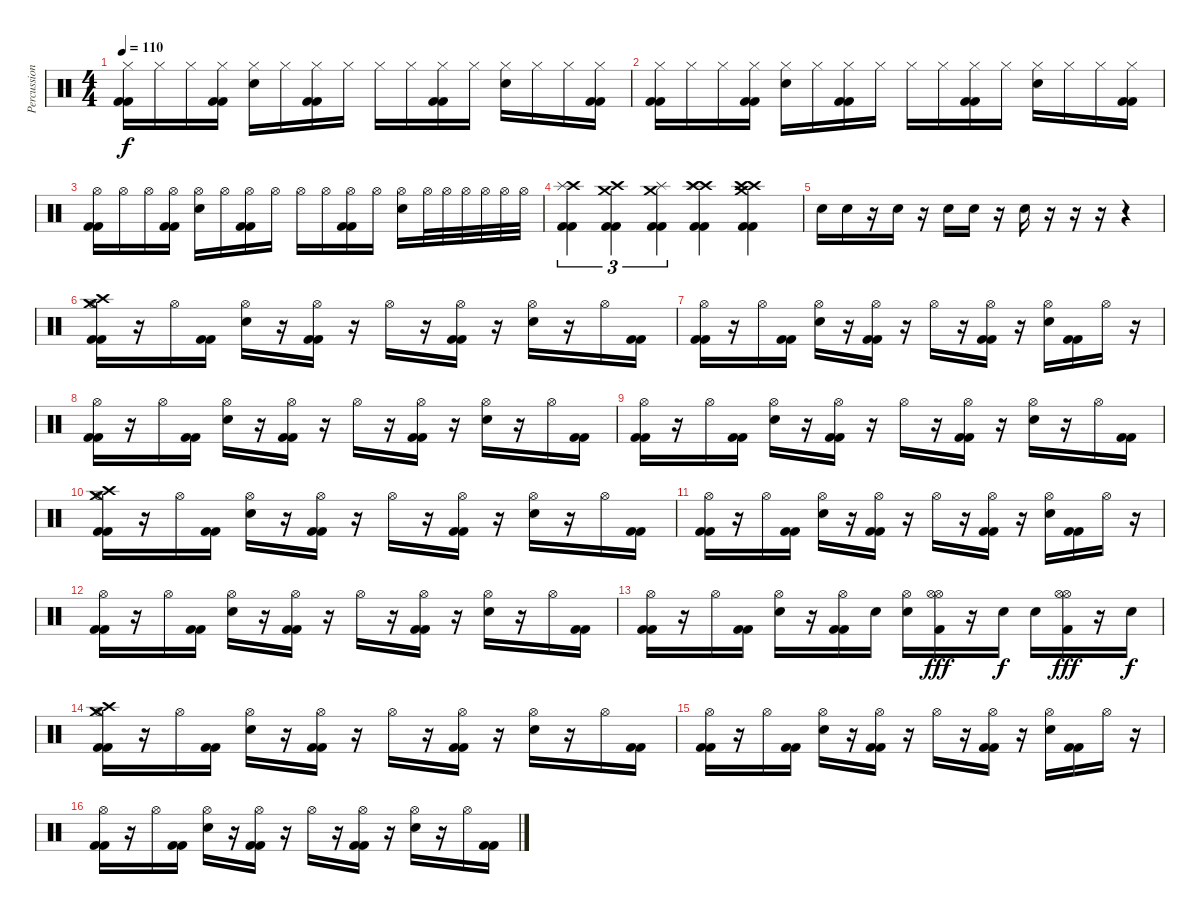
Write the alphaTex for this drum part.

\track ("Percussion" "Percussion") {instrument percussion}
\staff {score}
\articulation defaults
\ts (4 4)
\tempo 110
\clef neutral
\ks c
("Hi-Hat (closed)" "Kick (hit) 2" "Kick (hit) 2").16{dy f} "Hi-Hat (closed)".16 "Hi-Hat (closed)".16 ("Hi-Hat (closed)" "Kick (hit) 2" "Kick (hit) 2").16 ("Hi-Hat (closed)" "Electric Snare (hit)").16 "Hi-Hat (closed)".16 ("Hi-Hat (closed)" "Kick (hit) 2" "Kick (hit) 2").16 "Hi-Hat (closed)".16 "Hi-Hat (closed)".16 "Hi-Hat (closed)".16 ("Hi-Hat (closed)" "Kick (hit) 2" "Kick (hit) 2").16 "Hi-Hat (closed)".16 ("Hi-Hat (closed)" "Electric Snare (hit)").16 "Hi-Hat (closed)".16 "Hi-Hat (closed)".16 ("Hi-Hat (closed)" "Kick (hit) 2" "Kick (hit) 2").16 |
("Hi-Hat (closed)" "Kick (hit) 2" "Kick (hit) 2").16 "Hi-Hat (closed)".16 "Hi-Hat (closed)".16 ("Hi-Hat (closed)" "Kick (hit) 2" "Kick (hit) 2").16 ("Hi-Hat (closed)" "Electric Snare (hit)").16 "Hi-Hat (closed)".16 ("Hi-Hat (closed)" "Kick (hit) 2" "Kick (hit) 2").16 "Hi-Hat (closed)".16 "Hi-Hat (closed)".16 "Hi-Hat (closed)".16 ("Hi-Hat (closed)" "Kick (hit) 2" "Kick (hit) 2").16 "Hi-Hat (closed)".16 ("Hi-Hat (closed)" "Electric Snare (hit)").16 "Hi-Hat (closed)".16 "Hi-Hat (closed)".16 ("Hi-Hat (closed)" "Kick (hit) 2" "Kick (hit) 2").16 |
("Hi-Hat (open)" "Kick (hit) 2" "Kick (hit) 2").16 "Hi-Hat (open)".16 "Hi-Hat (open)".16 ("Hi-Hat (open)" "Kick (hit) 2" "Kick (hit) 2").16 ("Hi-Hat (open)" "Electric Snare (hit)").16 "Hi-Hat (open)".16 ("Hi-Hat (open)" "Kick (hit) 2" "Kick (hit) 2").16 "Hi-Hat (open)".16 "Hi-Hat (open)".16 "Hi-Hat (open)".16 ("Hi-Hat (open)" "Kick (hit) 2" "Kick (hit) 2").16 "Hi-Hat (open)".16 ("Hi-Hat (open)" "Electric Snare (hit)").16 "Hi-Hat (open)".32 "Hi-Hat (open)".32 "Hi-Hat (open)".32 "Hi-Hat (open)".32 "Hi-Hat (open)".32 "Hi-Hat (open)".32 |
("Crash high (hit)" "Splash (hit)" "Kick (hit) 2" "Kick (hit) 2").4{tu (3 2)} ("Crash medium (hit)" "Crash high (hit)" "Kick (hit) 2" "Kick (hit) 2").4{tu (3 2)} ("Splash (hit)" "Crash medium (hit)" "Kick (hit) 2" "Kick (hit) 2").4{tu (3 2)} ("Crash high (hit)" "Crash high (hit)" "Splash (hit)" "Kick (hit) 2" "Kick (hit) 2").4 ("Crash high (hit)" "Crash high (hit)" "Crash medium (hit)" "Kick (hit) 2" "Kick (hit) 2").4 |
"Electric Snare (hit)".16 "Electric Snare (hit)".16 r.16 "Electric Snare (hit)".16 r.16 "Electric Snare (hit)".16 "Electric Snare (hit)".16 r.16 "Electric Snare (hit)".16 r.16 r.16 r.16 r.4 |
("Hi-Hat (open)" "Crash high (hit)" "Crash medium (hit)" "Kick (hit) 2" "Kick (hit) 2").16 r.16 "Hi-Hat (open)".16 ("Kick (hit) 2" "Kick (hit) 2").16 ("Hi-Hat (open)" "Electric Snare (hit)").16 r.16 ("Hi-Hat (open)" "Kick (hit) 2" "Kick (hit) 2").16 r.16 "Hi-Hat (open)".16 r.16 ("Hi-Hat (open)" "Kick (hit) 2" "Kick (hit) 2").16 r.16 ("Hi-Hat (open)" "Electric Snare (hit)").16 r.16 "Hi-Hat (open)".16 ("Kick (hit) 2" "Kick (hit) 2").16 |
("Hi-Hat (open)" "Kick (hit) 2" "Kick (hit) 2").16 r.16 "Hi-Hat (open)".16 ("Kick (hit) 2" "Kick (hit) 2").16 ("Hi-Hat (open)" "Electric Snare (hit)").16 r.16 ("Hi-Hat (open)" "Kick (hit) 2" "Kick (hit) 2").16 r.16 "Hi-Hat (open)".16 r.16 ("Hi-Hat (open)" "Kick (hit) 2" "Kick (hit) 2").16 r.16 ("Hi-Hat (open)" "Electric Snare (hit)").16 ("Kick (hit) 2" "Kick (hit) 2").16 "Hi-Hat (open)".16 r.16 |
("Hi-Hat (open)" "Kick (hit) 2" "Kick (hit) 2").16 r.16 "Hi-Hat (open)".16 ("Kick (hit) 2" "Kick (hit) 2").16 ("Hi-Hat (open)" "Electric Snare (hit)").16 r.16 ("Hi-Hat (open)" "Kick (hit) 2" "Kick (hit) 2").16 r.16 "Hi-Hat (open)".16 r.16 ("Hi-Hat (open)" "Kick (hit) 2" "Kick (hit) 2").16 r.16 ("Hi-Hat (open)" "Electric Snare (hit)").16 r.16 "Hi-Hat (open)".16 ("Kick (hit) 2" "Kick (hit) 2").16 |
("Hi-Hat (open)" "Kick (hit) 2" "Kick (hit) 2").16 r.16 "Hi-Hat (open)".16 ("Kick (hit) 2" "Kick (hit) 2").16 ("Hi-Hat (open)" "Electric Snare (hit)").16 r.16 ("Hi-Hat (open)" "Kick (hit) 2" "Kick (hit) 2").16 r.16 "Hi-Hat (open)".16 r.16 ("Hi-Hat (open)" "Kick (hit) 2" "Kick (hit) 2").16 r.16 ("Hi-Hat (open)" "Electric Snare (hit)").16 r.16 "Hi-Hat (open)".16 ("Kick (hit) 2" "Kick (hit) 2").16 |
("Hi-Hat (open)" "Crash high (hit)" "Crash medium (hit)" "Kick (hit) 2" "Kick (hit) 2").16 r.16 "Hi-Hat (open)".16 ("Kick (hit) 2" "Kick (hit) 2").16 ("Hi-Hat (open)" "Electric Snare (hit)").16 r.16 ("Hi-Hat (open)" "Kick (hit) 2" "Kick (hit) 2").16 r.16 "Hi-Hat (open)".16 r.16 ("Hi-Hat (open)" "Kick (hit) 2" "Kick (hit) 2").16 r.16 ("Hi-Hat (open)" "Electric Snare (hit)").16 r.16 "Hi-Hat (open)".16 ("Kick (hit) 2" "Kick (hit) 2").16 |
("Hi-Hat (open)" "Kick (hit) 2" "Kick (hit) 2").16 r.16 "Hi-Hat (open)".16 ("Kick (hit) 2" "Kick (hit) 2").16 ("Hi-Hat (open)" "Electric Snare (hit)").16 r.16 ("Hi-Hat (open)" "Kick (hit) 2" "Kick (hit) 2").16 r.16 "Hi-Hat (open)".16 r.16 ("Hi-Hat (open)" "Kick (hit) 2" "Kick (hit) 2").16 r.16 ("Hi-Hat (open)" "Electric Snare (hit)").16 ("Kick (hit) 2" "Kick (hit) 2").16 "Hi-Hat (open)".16 r.16 |
("Hi-Hat (open)" "Kick (hit) 2" "Kick (hit) 2").16 r.16 "Hi-Hat (open)".16 ("Kick (hit) 2" "Kick (hit) 2").16 ("Hi-Hat (open)" "Electric Snare (hit)").16 r.16 ("Hi-Hat (open)" "Kick (hit) 2" "Kick (hit) 2").16 r.16 "Hi-Hat (open)".16 r.16 ("Hi-Hat (open)" "Kick (hit) 2" "Kick (hit) 2").16 r.16 ("Hi-Hat (open)" "Electric Snare (hit)").16 r.16 "Hi-Hat (open)".16 ("Kick (hit) 2" "Kick (hit) 2").16 |
("Hi-Hat (open)" "Kick (hit) 2" "Kick (hit) 2").16 r.16 "Hi-Hat (open)".16 ("Kick (hit) 2" "Kick (hit) 2").16 ("Hi-Hat (open)" "Electric Snare (hit)").16 r.16 ("Hi-Hat (open)" "Kick (hit) 2" "Kick (hit) 2").16 "Electric Snare (hit)".16 ("Hi-Hat (open)" "Electric Snare (hit)").16 ("Hi-Hat (open)" "Hi-Hat (open)" "Kick (hit) 2").16{dy fff} r.16 "Electric Snare (hit)".16{dy f} "Electric Snare (hit)".16 ("Hi-Hat (open)" "Hi-Hat (open)" "Kick (hit) 2").16{dy fff} r.16 "Electric Snare (hit)".16{dy f} |
("Hi-Hat (open)" "Crash high (hit)" "Crash medium (hit)" "Kick (hit) 2" "Kick (hit) 2").16 r.16 "Hi-Hat (open)".16 ("Kick (hit) 2" "Kick (hit) 2").16 ("Hi-Hat (open)" "Electric Snare (hit)").16 r.16 ("Hi-Hat (open)" "Kick (hit) 2" "Kick (hit) 2").16 r.16 "Hi-Hat (open)".16 r.16 ("Hi-Hat (open)" "Kick (hit) 2" "Kick (hit) 2").16 r.16 ("Hi-Hat (open)" "Electric Snare (hit)").16 r.16 "Hi-Hat (open)".16 ("Kick (hit) 2" "Kick (hit) 2").16 |
("Hi-Hat (open)" "Kick (hit) 2" "Kick (hit) 2").16 r.16 "Hi-Hat (open)".16 ("Kick (hit) 2" "Kick (hit) 2").16 ("Hi-Hat (open)" "Electric Snare (hit)").16 r.16 ("Hi-Hat (open)" "Kick (hit) 2" "Kick (hit) 2").16 r.16 "Hi-Hat (open)".16 r.16 ("Hi-Hat (open)" "Kick (hit) 2" "Kick (hit) 2").16 r.16 ("Hi-Hat (open)" "Electric Snare (hit)").16 ("Kick (hit) 2" "Kick (hit) 2").16 "Hi-Hat (open)".16 r.16 |
("Hi-Hat (open)" "Kick (hit) 2" "Kick (hit) 2").16 r.16 "Hi-Hat (open)".16 ("Kick (hit) 2" "Kick (hit) 2").16 ("Hi-Hat (open)" "Electric Snare (hit)").16 r.16 ("Hi-Hat (open)" "Kick (hit) 2" "Kick (hit) 2").16 r.16 "Hi-Hat (open)".16 r.16 ("Hi-Hat (open)" "Kick (hit) 2" "Kick (hit) 2").16 r.16 ("Hi-Hat (open)" "Electric Snare (hit)").16 r.16 "Hi-Hat (open)".16 ("Kick (hit) 2" "Kick (hit) 2").16
